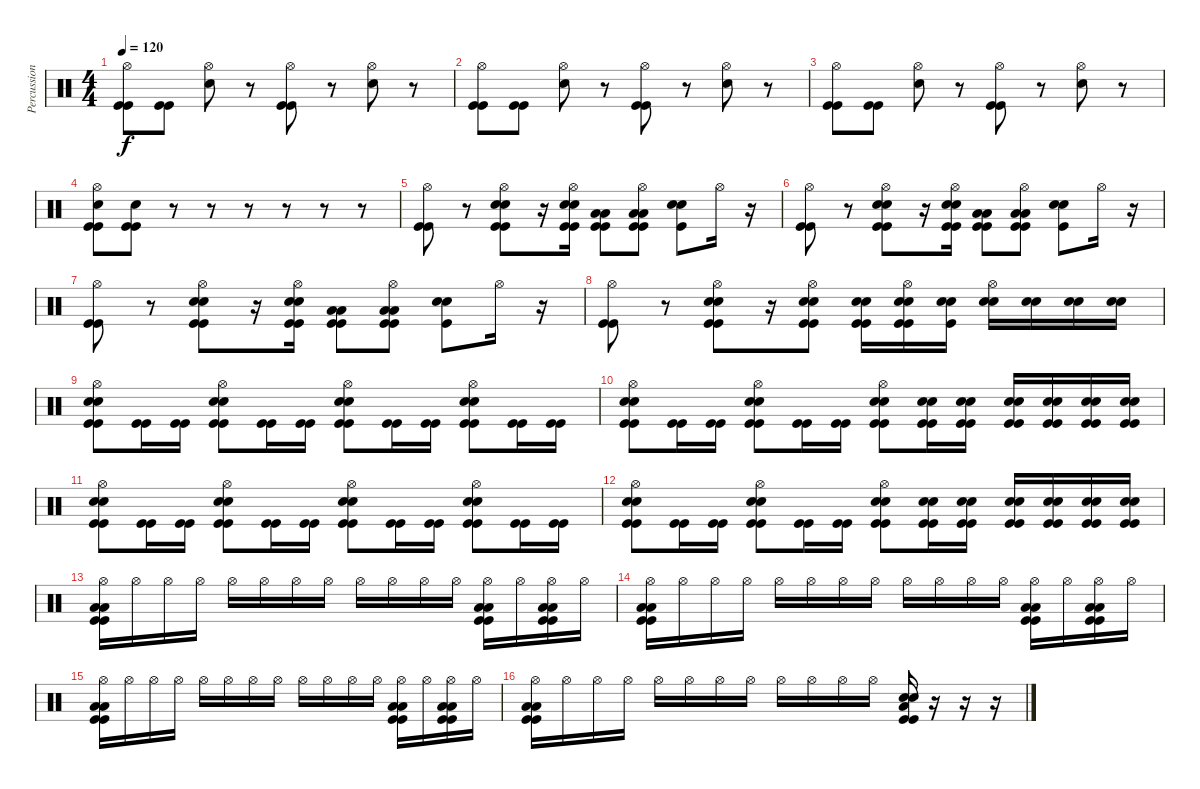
\track ("Percussion" "Percussion") {instrument percussion}
\staff {score}
\articulation defaults
\ts (4 4)
\tempo 120
\clef neutral
\ks c
("Hi-Hat (open)" "Kick (hit)" "Kick (hit)").8{dy f} ("Kick (hit)" "Kick (hit)").8 ("Hi-Hat (open)" "Electric Snare (hit)").8 r.8 ("Hi-Hat (open)" "Kick (hit)" "Kick (hit)").8 r.8 ("Hi-Hat (open)" "Electric Snare (hit)").8 r.8 |
("Hi-Hat (open)" "Kick (hit)" "Kick (hit)").8 ("Kick (hit)" "Kick (hit)").8 ("Hi-Hat (open)" "Electric Snare (hit)").8 r.8 ("Hi-Hat (open)" "Kick (hit)" "Kick (hit)").8 r.8 ("Hi-Hat (open)" "Electric Snare (hit)").8 r.8 |
("Hi-Hat (open)" "Kick (hit)" "Kick (hit)").8 ("Kick (hit)" "Kick (hit)").8 ("Hi-Hat (open)" "Electric Snare (hit)").8 r.8 ("Hi-Hat (open)" "Kick (hit)" "Kick (hit)").8 r.8 ("Hi-Hat (open)" "Electric Snare (hit)").8 r.8 |
("Hi-Hat (open)" "Kick (hit)" "Kick (hit)" "Electric Snare (hit)").8 ("Kick (hit)" "Kick (hit)" "Electric Snare (hit)").8 r.8 r.8 r.8 r.8 r.8 r.8 |
("Hi-Hat (open)" "Kick (hit)" "Kick (hit)").8 r.8 ("Hi-Hat (open)" "Kick (hit)" "Kick (hit)" "Electric Snare (hit)" "Electric Snare (hit)").8 r.16 ("Hi-Hat (open)" "Kick (hit)" "Kick (hit)" "Electric Snare (hit)" "Electric Snare (hit)").16 ("Kick (hit)" "Kick (hit)" "Low Tom (hit)" "Low Tom (hit)").8 ("Hi-Hat (open)" "Kick (hit)" "Kick (hit)" "Low Tom (hit)" "Low Tom (hit)").8 ("Kick (hit)" "Electric Snare (hit)" "Electric Snare (hit)").8 "Hi-Hat (open)".16 r.16 |
("Hi-Hat (open)" "Kick (hit)" "Kick (hit)").8 r.8 ("Hi-Hat (open)" "Kick (hit)" "Kick (hit)" "Electric Snare (hit)" "Electric Snare (hit)").8 r.16 ("Hi-Hat (open)" "Kick (hit)" "Kick (hit)" "Electric Snare (hit)" "Electric Snare (hit)").16 ("Kick (hit)" "Kick (hit)" "Low Tom (hit)" "Low Tom (hit)").8 ("Hi-Hat (open)" "Kick (hit)" "Kick (hit)" "Low Tom (hit)" "Low Tom (hit)").8 ("Kick (hit)" "Electric Snare (hit)" "Electric Snare (hit)").8 "Hi-Hat (open)".16 r.16 |
("Hi-Hat (open)" "Kick (hit)" "Kick (hit)").8 r.8 ("Hi-Hat (open)" "Kick (hit)" "Kick (hit)" "Electric Snare (hit)" "Electric Snare (hit)").8 r.16 ("Hi-Hat (open)" "Kick (hit)" "Kick (hit)" "Electric Snare (hit)" "Electric Snare (hit)").16 ("Kick (hit)" "Kick (hit)" "Low Tom (hit)" "Low Tom (hit)").8 ("Hi-Hat (open)" "Kick (hit)" "Kick (hit)" "Low Tom (hit)" "Low Tom (hit)").8 ("Kick (hit)" "Electric Snare (hit)" "Electric Snare (hit)").8 "Hi-Hat (open)".16 r.16 |
("Hi-Hat (open)" "Kick (hit)" "Kick (hit)").8 r.8 ("Hi-Hat (open)" "Kick (hit)" "Kick (hit)" "Electric Snare (hit)" "Electric Snare (hit)").8 r.16 ("Hi-Hat (open)" "Kick (hit)" "Kick (hit)" "Electric Snare (hit)" "Electric Snare (hit)").8 ("Kick (hit)" "Kick (hit)" "Electric Snare (hit)" "Electric Snare (hit)").16 ("Hi-Hat (open)" "Kick (hit)" "Kick (hit)" "Electric Snare (hit)" "Electric Snare (hit)").16 ("Kick (hit)" "Electric Snare (hit)" "Electric Snare (hit)").16 ("Hi-Hat (open)" "Electric Snare (hit)" "Electric Snare (hit)").16 ("Electric Snare (hit)" "Electric Snare (hit)").16 ("Electric Snare (hit)" "Electric Snare (hit)").16 ("Electric Snare (hit)" "Electric Snare (hit)").16 |
("Hi-Hat (open)" "Kick (hit)" "Kick (hit)" "Electric Snare (hit)" "Electric Snare (hit)").8 ("Kick (hit)" "Kick (hit)").16 ("Kick (hit)" "Kick (hit)").16 ("Hi-Hat (open)" "Kick (hit)" "Kick (hit)" "Electric Snare (hit)" "Electric Snare (hit)").8 ("Kick (hit)" "Kick (hit)").16 ("Kick (hit)" "Kick (hit)").16 ("Hi-Hat (open)" "Kick (hit)" "Kick (hit)" "Electric Snare (hit)" "Electric Snare (hit)").8 ("Kick (hit)" "Kick (hit)").16 ("Kick (hit)" "Kick (hit)").16 ("Hi-Hat (open)" "Kick (hit)" "Kick (hit)" "Electric Snare (hit)" "Electric Snare (hit)").8 ("Kick (hit)" "Kick (hit)").16 ("Kick (hit)" "Kick (hit)").16 |
("Hi-Hat (open)" "Kick (hit)" "Kick (hit)" "Electric Snare (hit)" "Electric Snare (hit)").8 ("Kick (hit)" "Kick (hit)").16 ("Kick (hit)" "Kick (hit)").16 ("Hi-Hat (open)" "Kick (hit)" "Kick (hit)" "Electric Snare (hit)" "Electric Snare (hit)").8 ("Kick (hit)" "Kick (hit)").16 ("Kick (hit)" "Kick (hit)").16 ("Hi-Hat (open)" "Kick (hit)" "Kick (hit)" "Electric Snare (hit)" "Electric Snare (hit)").8 ("Kick (hit)" "Kick (hit)" "Electric Snare (hit)" "Electric Snare (hit)").16 ("Kick (hit)" "Kick (hit)" "Electric Snare (hit)" "Electric Snare (hit)").16 ("Kick (hit)" "Kick (hit)" "Electric Snare (hit)" "Electric Snare (hit)").16 ("Kick (hit)" "Kick (hit)" "Electric Snare (hit)" "Electric Snare (hit)").16 ("Kick (hit)" "Kick (hit)" "Electric Snare (hit)" "Electric Snare (hit)").16 ("Kick (hit)" "Kick (hit)" "Electric Snare (hit)" "Electric Snare (hit)").16 |
("Hi-Hat (open)" "Kick (hit)" "Kick (hit)" "Electric Snare (hit)" "Electric Snare (hit)").8 ("Kick (hit)" "Kick (hit)").16 ("Kick (hit)" "Kick (hit)").16 ("Hi-Hat (open)" "Kick (hit)" "Kick (hit)" "Electric Snare (hit)" "Electric Snare (hit)").8 ("Kick (hit)" "Kick (hit)").16 ("Kick (hit)" "Kick (hit)").16 ("Hi-Hat (open)" "Kick (hit)" "Kick (hit)" "Electric Snare (hit)" "Electric Snare (hit)").8 ("Kick (hit)" "Kick (hit)").16 ("Kick (hit)" "Kick (hit)").16 ("Hi-Hat (open)" "Kick (hit)" "Kick (hit)" "Electric Snare (hit)" "Electric Snare (hit)").8 ("Kick (hit)" "Kick (hit)").16 ("Kick (hit)" "Kick (hit)").16 |
("Hi-Hat (open)" "Kick (hit)" "Kick (hit)" "Electric Snare (hit)" "Electric Snare (hit)").8 ("Kick (hit)" "Kick (hit)").16 ("Kick (hit)" "Kick (hit)").16 ("Hi-Hat (open)" "Kick (hit)" "Kick (hit)" "Electric Snare (hit)" "Electric Snare (hit)").8 ("Kick (hit)" "Kick (hit)").16 ("Kick (hit)" "Kick (hit)").16 ("Hi-Hat (open)" "Kick (hit)" "Kick (hit)" "Electric Snare (hit)" "Electric Snare (hit)").8 ("Kick (hit)" "Kick (hit)" "Electric Snare (hit)" "Electric Snare (hit)").16 ("Kick (hit)" "Kick (hit)" "Electric Snare (hit)" "Electric Snare (hit)").16 ("Kick (hit)" "Kick (hit)" "Electric Snare (hit)" "Electric Snare (hit)").16 ("Kick (hit)" "Kick (hit)" "Electric Snare (hit)" "Electric Snare (hit)").16 ("Kick (hit)" "Kick (hit)" "Electric Snare (hit)" "Electric Snare (hit)").16 ("Kick (hit)" "Kick (hit)" "Electric Snare (hit)" "Electric Snare (hit)").16 |
("Hi-Hat (open)" "Kick (hit)" "Kick (hit)" "Low Tom (hit)" "Low Tom (hit)").16 "Hi-Hat (open)".16 "Hi-Hat (open)".16 "Hi-Hat (open)".16 "Hi-Hat (open)".16 "Hi-Hat (open)".16 "Hi-Hat (open)".16 "Hi-Hat (open)".16 "Hi-Hat (open)".16 "Hi-Hat (open)".16 "Hi-Hat (open)".16 "Hi-Hat (open)".16 ("Hi-Hat (open)" "Kick (hit)" "Kick (hit)" "Low Tom (hit)" "Low Tom (hit)").16 "Hi-Hat (open)".16 ("Hi-Hat (open)" "Kick (hit)" "Kick (hit)" "Low Tom (hit)" "Low Tom (hit)").16 "Hi-Hat (open)".16 |
("Hi-Hat (open)" "Kick (hit)" "Kick (hit)" "Low Tom (hit)" "Low Tom (hit)").16 "Hi-Hat (open)".16 "Hi-Hat (open)".16 "Hi-Hat (open)".16 "Hi-Hat (open)".16 "Hi-Hat (open)".16 "Hi-Hat (open)".16 "Hi-Hat (open)".16 "Hi-Hat (open)".16 "Hi-Hat (open)".16 "Hi-Hat (open)".16 "Hi-Hat (open)".16 ("Hi-Hat (open)" "Kick (hit)" "Kick (hit)" "Low Tom (hit)" "Low Tom (hit)").16 "Hi-Hat (open)".16 ("Hi-Hat (open)" "Kick (hit)" "Kick (hit)" "Low Tom (hit)" "Low Tom (hit)").16 "Hi-Hat (open)".16 |
("Hi-Hat (open)" "Kick (hit)" "Kick (hit)" "Low Tom (hit)" "Low Tom (hit)").16 "Hi-Hat (open)".16 "Hi-Hat (open)".16 "Hi-Hat (open)".16 "Hi-Hat (open)".16 "Hi-Hat (open)".16 "Hi-Hat (open)".16 "Hi-Hat (open)".16 "Hi-Hat (open)".16 "Hi-Hat (open)".16 "Hi-Hat (open)".16 "Hi-Hat (open)".16 ("Hi-Hat (open)" "Kick (hit)" "Kick (hit)" "Low Tom (hit)" "Low Tom (hit)").16 "Hi-Hat (open)".16 ("Hi-Hat (open)" "Kick (hit)" "Kick (hit)" "Low Tom (hit)" "Low Tom (hit)").16 "Hi-Hat (open)".16 |
("Hi-Hat (open)" "Kick (hit)" "Kick (hit)" "Low Tom (hit)" "Low Tom (hit)").16 "Hi-Hat (open)".16 "Hi-Hat (open)".16 "Hi-Hat (open)".16 "Hi-Hat (open)".16 "Hi-Hat (open)".16 "Hi-Hat (open)".16 "Hi-Hat (open)".16 "Hi-Hat (open)".16 "Hi-Hat (open)".16 "Hi-Hat (open)".16 "Hi-Hat (open)".16 ("Kick (hit)" "Kick (hit)" "Electric Snare (hit)" "Electric Snare (hit)" "Low Tom (hit)").16 r.16 r.16 r.16
